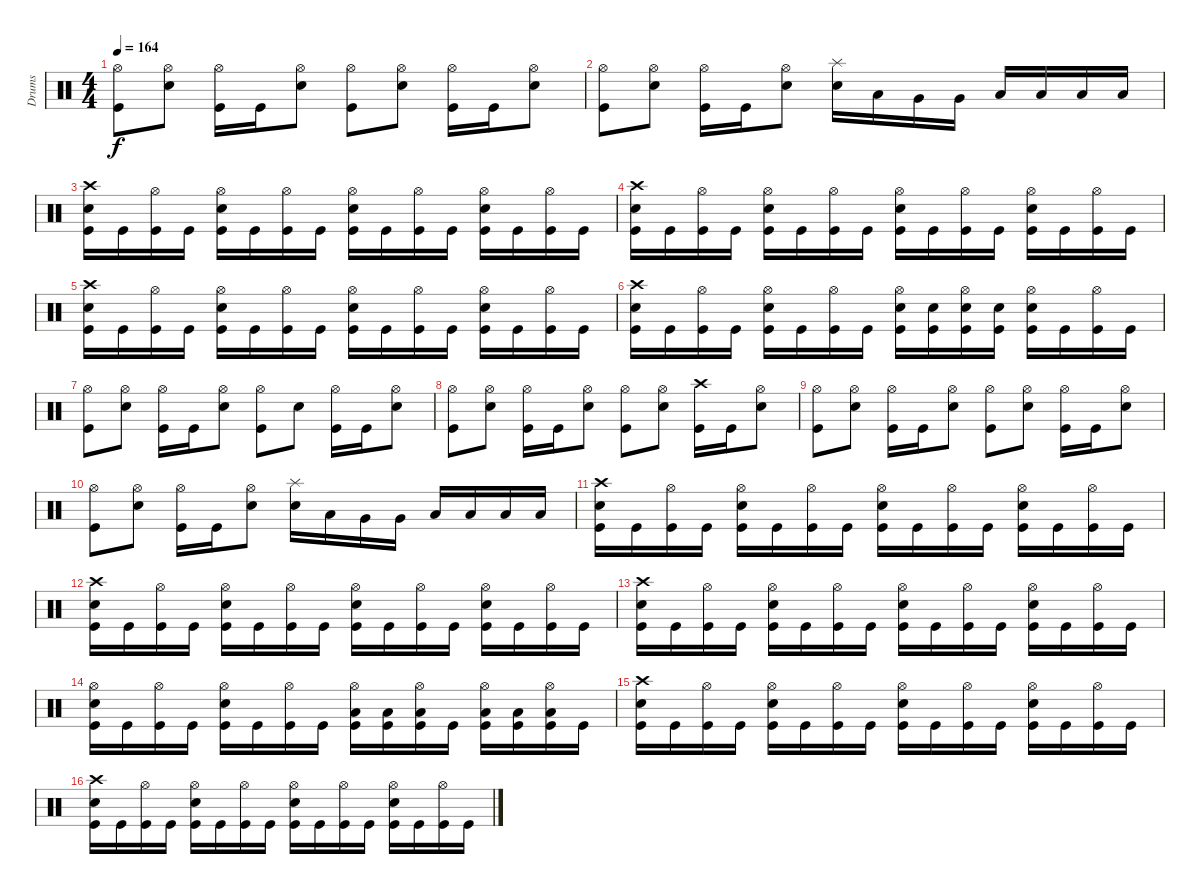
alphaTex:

\track ("Drums" "Drums") {instrument percussion}
\staff {score}
\articulation defaults
\ts (4 4)
\tempo 164
\clef neutral
\ks c
("Hi-Hat (open)" "Kick (hit)").8{dy f} ("Hi-Hat (open)" "Snare (hit) 2").8 ("Hi-Hat (open)" "Kick (hit)").16 "Kick (hit)".16 ("Hi-Hat (open)" "Snare (hit) 2").8 ("Hi-Hat (open)" "Kick (hit)").8 ("Hi-Hat (open)" "Snare (hit) 2").8 ("Hi-Hat (open)" "Kick (hit)").16 "Kick (hit)".16 ("Hi-Hat (open)" "Snare (hit) 2").8 |
("Hi-Hat (open)" "Kick (hit)").8 ("Hi-Hat (open)" "Snare (hit) 2").8 ("Hi-Hat (open)" "Kick (hit)").16 "Kick (hit)".16 ("Hi-Hat (open)" "Snare (hit) 2").8 ("Splash (hit)" "Snare (hit) 2").16 "Low Tom (hit)".16 "Very Low Tom (hit)".16 "Very Low Tom (hit)".16 "Low Floor Tom (hit)".16 "Low Floor Tom (hit)".16 "Low Floor Tom (hit)".16 "Low Floor Tom (hit)".16 |
("Crash high (hit)" "Snare (hit) 2" "Kick (hit)").16 "Kick (hit)".16 ("Hi-Hat (open)" "Kick (hit)").16 "Kick (hit)".16 ("Hi-Hat (open)" "Snare (hit) 2" "Kick (hit)").16 "Kick (hit)".16 ("Hi-Hat (open)" "Kick (hit)").16 "Kick (hit)".16 ("Hi-Hat (open)" "Snare (hit) 2" "Kick (hit)").16 "Kick (hit)".16 ("Hi-Hat (open)" "Kick (hit)").16 "Kick (hit)".16 ("Hi-Hat (open)" "Snare (hit) 2" "Kick (hit)").16 "Kick (hit)".16 ("Hi-Hat (open)" "Kick (hit)").16 "Kick (hit)".16 |
("Crash high (hit)" "Snare (hit) 2" "Kick (hit)").16 "Kick (hit)".16 ("Hi-Hat (open)" "Kick (hit)").16 "Kick (hit)".16 ("Hi-Hat (open)" "Snare (hit) 2" "Kick (hit)").16 "Kick (hit)".16 ("Hi-Hat (open)" "Kick (hit)").16 "Kick (hit)".16 ("Hi-Hat (open)" "Snare (hit) 2" "Kick (hit)").16 "Kick (hit)".16 ("Hi-Hat (open)" "Kick (hit)").16 "Kick (hit)".16 ("Hi-Hat (open)" "Snare (hit) 2" "Kick (hit)").16 "Kick (hit)".16 ("Hi-Hat (open)" "Kick (hit)").16 "Kick (hit)".16 |
("Crash high (hit)" "Snare (hit) 2" "Kick (hit)").16 "Kick (hit)".16 ("Hi-Hat (open)" "Kick (hit)").16 "Kick (hit)".16 ("Hi-Hat (open)" "Snare (hit) 2" "Kick (hit)").16 "Kick (hit)".16 ("Hi-Hat (open)" "Kick (hit)").16 "Kick (hit)".16 ("Hi-Hat (open)" "Snare (hit) 2" "Kick (hit)").16 "Kick (hit)".16 ("Hi-Hat (open)" "Kick (hit)").16 "Kick (hit)".16 ("Hi-Hat (open)" "Snare (hit) 2" "Kick (hit)").16 "Kick (hit)".16 ("Hi-Hat (open)" "Kick (hit)").16 "Kick (hit)".16 |
("Crash high (hit)" "Snare (hit) 2" "Kick (hit)").16 "Kick (hit)".16 ("Hi-Hat (open)" "Kick (hit)").16 "Kick (hit)".16 ("Hi-Hat (open)" "Snare (hit) 2" "Kick (hit)").16 "Kick (hit)".16 ("Hi-Hat (open)" "Kick (hit)").16 "Kick (hit)".16 ("Hi-Hat (open)" "Snare (hit) 2" "Kick (hit)").16 ("Snare (hit) 2" "Kick (hit)").16 ("Hi-Hat (open)" "Snare (hit) 2" "Kick (hit)").16 ("Snare (hit) 2" "Kick (hit)").16 ("Hi-Hat (open)" "Snare (hit) 2" "Kick (hit)").16 "Kick (hit)".16 ("Hi-Hat (open)" "Kick (hit)").16 "Kick (hit)".16 |
("Hi-Hat (open)" "Kick (hit)").8 ("Hi-Hat (open)" "Snare (hit) 2").8 ("Hi-Hat (open)" "Kick (hit)").16 "Kick (hit)".16 ("Hi-Hat (open)" "Snare (hit) 2").8 ("Hi-Hat (open)" "Kick (hit)").8 "Snare (hit) 2".8 ("Hi-Hat (open)" "Kick (hit)").16 "Kick (hit)".16 ("Hi-Hat (open)" "Snare (hit) 2").8 |
("Hi-Hat (open)" "Kick (hit)").8 ("Hi-Hat (open)" "Snare (hit) 2").8 ("Hi-Hat (open)" "Kick (hit)").16 "Kick (hit)".16 ("Hi-Hat (open)" "Snare (hit) 2").8 ("Hi-Hat (open)" "Kick (hit)").8 ("Hi-Hat (open)" "Snare (hit) 2").8 ("Crash high (hit)" "Kick (hit)").16 "Kick (hit)".16 ("Hi-Hat (open)" "Snare (hit) 2").8 |
("Hi-Hat (open)" "Kick (hit)").8 ("Hi-Hat (open)" "Snare (hit) 2").8 ("Hi-Hat (open)" "Kick (hit)").16 "Kick (hit)".16 ("Hi-Hat (open)" "Snare (hit) 2").8 ("Hi-Hat (open)" "Kick (hit)").8 ("Hi-Hat (open)" "Snare (hit) 2").8 ("Hi-Hat (open)" "Kick (hit)").16 "Kick (hit)".16 ("Hi-Hat (open)" "Snare (hit) 2").8 |
("Hi-Hat (open)" "Kick (hit)").8 ("Hi-Hat (open)" "Snare (hit) 2").8 ("Hi-Hat (open)" "Kick (hit)").16 "Kick (hit)".16 ("Hi-Hat (open)" "Snare (hit) 2").8 ("Splash (hit)" "Snare (hit) 2").16 "Low Tom (hit)".16 "Very Low Tom (hit)".16 "Very Low Tom (hit)".16 "Low Floor Tom (hit)".16 "Low Floor Tom (hit)".16 "Low Floor Tom (hit)".16 "Low Floor Tom (hit)".16 |
("Crash high (hit)" "Snare (hit) 2" "Kick (hit)").16 "Kick (hit)".16 ("Hi-Hat (open)" "Kick (hit)").16 "Kick (hit)".16 ("Hi-Hat (open)" "Snare (hit) 2" "Kick (hit)").16 "Kick (hit)".16 ("Hi-Hat (open)" "Kick (hit)").16 "Kick (hit)".16 ("Hi-Hat (open)" "Snare (hit) 2" "Kick (hit)").16 "Kick (hit)".16 ("Hi-Hat (open)" "Kick (hit)").16 "Kick (hit)".16 ("Hi-Hat (open)" "Snare (hit) 2" "Kick (hit)").16 "Kick (hit)".16 ("Hi-Hat (open)" "Kick (hit)").16 "Kick (hit)".16 |
("Crash high (hit)" "Snare (hit) 2" "Kick (hit)").16 "Kick (hit)".16 ("Hi-Hat (open)" "Kick (hit)").16 "Kick (hit)".16 ("Hi-Hat (open)" "Snare (hit) 2" "Kick (hit)").16 "Kick (hit)".16 ("Hi-Hat (open)" "Kick (hit)").16 "Kick (hit)".16 ("Hi-Hat (open)" "Snare (hit) 2" "Kick (hit)").16 "Kick (hit)".16 ("Hi-Hat (open)" "Kick (hit)").16 "Kick (hit)".16 ("Hi-Hat (open)" "Snare (hit) 2" "Kick (hit)").16 "Kick (hit)".16 ("Hi-Hat (open)" "Kick (hit)").16 "Kick (hit)".16 |
("Crash high (hit)" "Snare (hit) 2" "Kick (hit)").16 "Kick (hit)".16 ("Hi-Hat (open)" "Kick (hit)").16 "Kick (hit)".16 ("Hi-Hat (open)" "Snare (hit) 2" "Kick (hit)").16 "Kick (hit)".16 ("Hi-Hat (open)" "Kick (hit)").16 "Kick (hit)".16 ("Hi-Hat (open)" "Snare (hit) 2" "Kick (hit)").16 "Kick (hit)".16 ("Hi-Hat (open)" "Kick (hit)").16 "Kick (hit)".16 ("Hi-Hat (open)" "Snare (hit) 2" "Kick (hit)").16 "Kick (hit)".16 ("Hi-Hat (open)" "Kick (hit)").16 "Kick (hit)".16 |
("Hi-Hat (open)" "Snare (hit) 2" "Kick (hit)").16 "Kick (hit)".16 ("Hi-Hat (open)" "Kick (hit)").16 "Kick (hit)".16 ("Hi-Hat (open)" "Snare (hit) 2" "Kick (hit)").16 "Kick (hit)".16 ("Hi-Hat (open)" "Kick (hit)").16 "Kick (hit)".16 ("Hi-Hat (open)" "Low Floor Tom (hit)" "Kick (hit)").16 ("Low Floor Tom (hit)" "Kick (hit)").16 ("Hi-Hat (open)" "Low Floor Tom (hit)" "Kick (hit)").16 "Kick (hit)".16 ("Hi-Hat (open)" "Low Floor Tom (hit)" "Kick (hit)").16 ("Low Floor Tom (hit)" "Kick (hit)").16 ("Hi-Hat (open)" "Low Floor Tom (hit)" "Kick (hit)").16 "Kick (hit)".16 |
("Crash high (hit)" "Snare (hit) 2" "Kick (hit)").16 "Kick (hit)".16 ("Hi-Hat (open)" "Kick (hit)").16 "Kick (hit)".16 ("Hi-Hat (open)" "Snare (hit) 2" "Kick (hit)").16 "Kick (hit)".16 ("Hi-Hat (open)" "Kick (hit)").16 "Kick (hit)".16 ("Hi-Hat (open)" "Snare (hit) 2" "Kick (hit)").16 "Kick (hit)".16 ("Hi-Hat (open)" "Kick (hit)").16 "Kick (hit)".16 ("Hi-Hat (open)" "Snare (hit) 2" "Kick (hit)").16 "Kick (hit)".16 ("Hi-Hat (open)" "Kick (hit)").16 "Kick (hit)".16 |
("Crash high (hit)" "Snare (hit) 2" "Kick (hit)").16 "Kick (hit)".16 ("Hi-Hat (open)" "Kick (hit)").16 "Kick (hit)".16 ("Hi-Hat (open)" "Snare (hit) 2" "Kick (hit)").16 "Kick (hit)".16 ("Hi-Hat (open)" "Kick (hit)").16 "Kick (hit)".16 ("Hi-Hat (open)" "Snare (hit) 2" "Kick (hit)").16 "Kick (hit)".16 ("Hi-Hat (open)" "Kick (hit)").16 "Kick (hit)".16 ("Hi-Hat (open)" "Snare (hit) 2" "Kick (hit)").16 "Kick (hit)".16 ("Hi-Hat (open)" "Kick (hit)").16 "Kick (hit)".16
